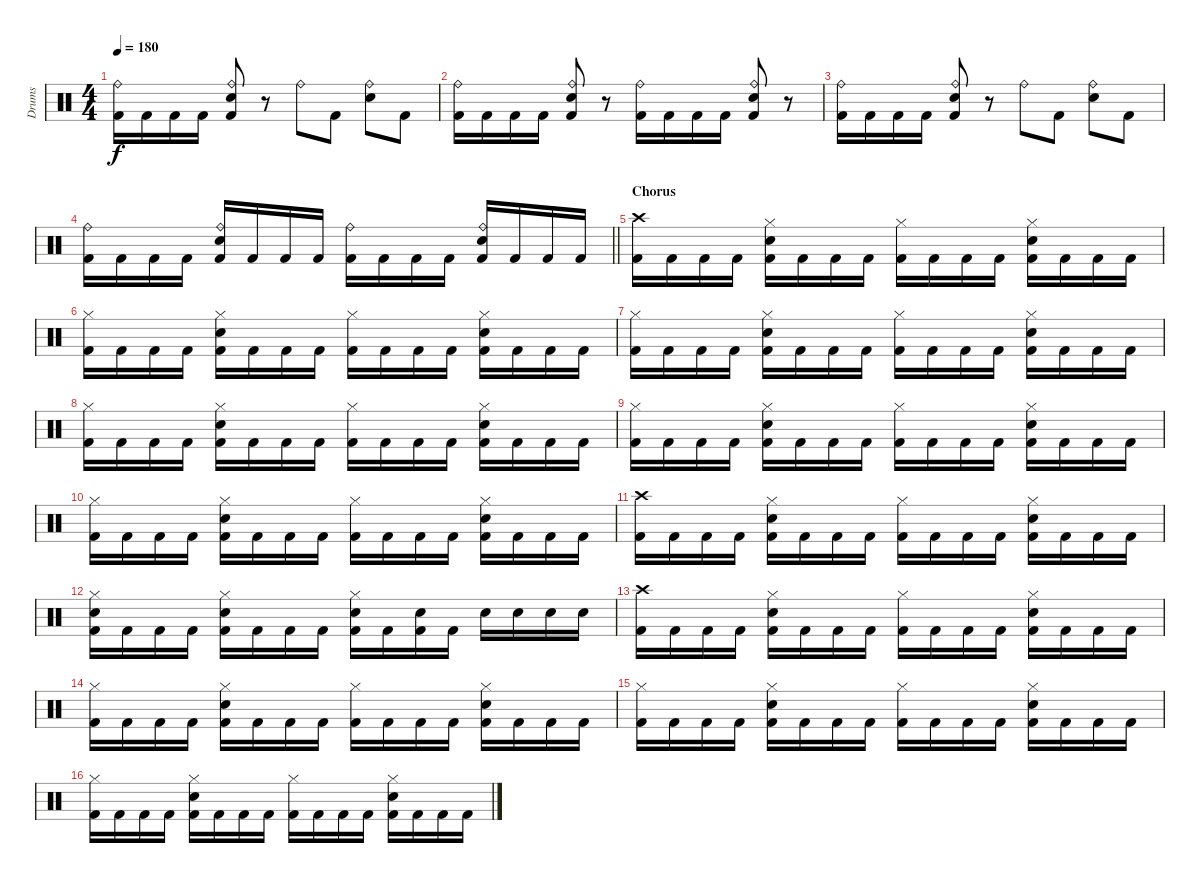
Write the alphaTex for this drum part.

\track ("Drums " "Drums ") {instrument percussion}
\staff {score}
\articulation defaults
\ts (4 4)
\tempo 180
\clef neutral
\ks c
("Kick (hit) 2" "Ride (bell)").16{dy f} "Kick (hit) 2".16 "Kick (hit) 2".16 "Kick (hit) 2".16 ("Kick (hit) 2" "Ride (bell)" "Electric Snare (hit)").8 r.8 "Ride (bell)".8 "Kick (hit) 2".8 ("Ride (bell)" "Electric Snare (hit)").8 "Kick (hit) 2".8 |
("Kick (hit) 2" "Ride (bell)").16 "Kick (hit) 2".16 "Kick (hit) 2".16 "Kick (hit) 2".16 ("Kick (hit) 2" "Ride (bell)" "Electric Snare (hit)").8 r.8 ("Kick (hit) 2" "Ride (bell)").16 "Kick (hit) 2".16 "Kick (hit) 2".16 "Kick (hit) 2".16 ("Kick (hit) 2" "Ride (bell)" "Electric Snare (hit)").8 r.8 |
("Kick (hit) 2" "Ride (bell)").16 "Kick (hit) 2".16 "Kick (hit) 2".16 "Kick (hit) 2".16 ("Kick (hit) 2" "Ride (bell)" "Electric Snare (hit)").8 r.8 "Ride (bell)".8 "Kick (hit) 2".8 ("Ride (bell)" "Electric Snare (hit)").8 "Kick (hit) 2".8 |
\barLineRight lightlight
("Kick (hit) 2" "Ride (bell)").16 "Kick (hit) 2".16 "Kick (hit) 2".16 "Kick (hit) 2".16 ("Kick (hit) 2" "Ride (bell)" "Electric Snare (hit)").16 "Kick (hit) 2".16 "Kick (hit) 2".16 "Kick (hit) 2".16 ("Kick (hit) 2" "Ride (bell)").16 "Kick (hit) 2".16 "Kick (hit) 2".16 "Kick (hit) 2".16 ("Kick (hit) 2" "Ride (bell)" "Electric Snare (hit)").16 "Kick (hit) 2".16 "Kick (hit) 2".16 "Kick (hit) 2".16 |
\section ("" "Chorus")
("Kick (hit) 2" "Crash high (hit)").16 "Kick (hit) 2".16 "Kick (hit) 2".16 "Kick (hit) 2".16 ("Kick (hit) 2" "Hi-Hat (closed)" "Electric Snare (hit)").16 "Kick (hit) 2".16 "Kick (hit) 2".16 "Kick (hit) 2".16 ("Kick (hit) 2" "Hi-Hat (closed)").16 "Kick (hit) 2".16 "Kick (hit) 2".16 "Kick (hit) 2".16 ("Kick (hit) 2" "Hi-Hat (closed)" "Electric Snare (hit)").16 "Kick (hit) 2".16 "Kick (hit) 2".16 "Kick (hit) 2".16 |
("Kick (hit) 2" "Hi-Hat (closed)").16 "Kick (hit) 2".16 "Kick (hit) 2".16 "Kick (hit) 2".16 ("Kick (hit) 2" "Hi-Hat (closed)" "Electric Snare (hit)").16 "Kick (hit) 2".16 "Kick (hit) 2".16 "Kick (hit) 2".16 ("Kick (hit) 2" "Hi-Hat (closed)").16 "Kick (hit) 2".16 "Kick (hit) 2".16 "Kick (hit) 2".16 ("Kick (hit) 2" "Hi-Hat (closed)" "Electric Snare (hit)").16 "Kick (hit) 2".16 "Kick (hit) 2".16 "Kick (hit) 2".16 |
("Kick (hit) 2" "Hi-Hat (closed)").16 "Kick (hit) 2".16 "Kick (hit) 2".16 "Kick (hit) 2".16 ("Kick (hit) 2" "Hi-Hat (closed)" "Electric Snare (hit)").16 "Kick (hit) 2".16 "Kick (hit) 2".16 "Kick (hit) 2".16 ("Kick (hit) 2" "Hi-Hat (closed)").16 "Kick (hit) 2".16 "Kick (hit) 2".16 "Kick (hit) 2".16 ("Kick (hit) 2" "Hi-Hat (closed)" "Electric Snare (hit)").16 "Kick (hit) 2".16 "Kick (hit) 2".16 "Kick (hit) 2".16 |
("Kick (hit) 2" "Hi-Hat (closed)").16 "Kick (hit) 2".16 "Kick (hit) 2".16 "Kick (hit) 2".16 ("Kick (hit) 2" "Hi-Hat (closed)" "Electric Snare (hit)").16 "Kick (hit) 2".16 "Kick (hit) 2".16 "Kick (hit) 2".16 ("Kick (hit) 2" "Hi-Hat (closed)").16 "Kick (hit) 2".16 "Kick (hit) 2".16 "Kick (hit) 2".16 ("Kick (hit) 2" "Hi-Hat (closed)" "Electric Snare (hit)").16 "Kick (hit) 2".16 "Kick (hit) 2".16 "Kick (hit) 2".16 |
("Kick (hit) 2" "Hi-Hat (closed)").16 "Kick (hit) 2".16 "Kick (hit) 2".16 "Kick (hit) 2".16 ("Kick (hit) 2" "Hi-Hat (closed)" "Electric Snare (hit)").16 "Kick (hit) 2".16 "Kick (hit) 2".16 "Kick (hit) 2".16 ("Kick (hit) 2" "Hi-Hat (closed)").16 "Kick (hit) 2".16 "Kick (hit) 2".16 "Kick (hit) 2".16 ("Kick (hit) 2" "Hi-Hat (closed)" "Electric Snare (hit)").16 "Kick (hit) 2".16 "Kick (hit) 2".16 "Kick (hit) 2".16 |
("Kick (hit) 2" "Hi-Hat (closed)").16 "Kick (hit) 2".16 "Kick (hit) 2".16 "Kick (hit) 2".16 ("Kick (hit) 2" "Hi-Hat (closed)" "Electric Snare (hit)").16 "Kick (hit) 2".16 "Kick (hit) 2".16 "Kick (hit) 2".16 ("Kick (hit) 2" "Hi-Hat (closed)").16 "Kick (hit) 2".16 "Kick (hit) 2".16 "Kick (hit) 2".16 ("Kick (hit) 2" "Hi-Hat (closed)" "Electric Snare (hit)").16 "Kick (hit) 2".16 "Kick (hit) 2".16 "Kick (hit) 2".16 |
("Kick (hit) 2" "Crash high (hit)").16 "Kick (hit) 2".16 "Kick (hit) 2".16 "Kick (hit) 2".16 ("Kick (hit) 2" "Hi-Hat (closed)" "Electric Snare (hit)").16 "Kick (hit) 2".16 "Kick (hit) 2".16 "Kick (hit) 2".16 ("Kick (hit) 2" "Hi-Hat (closed)").16 "Kick (hit) 2".16 "Kick (hit) 2".16 "Kick (hit) 2".16 ("Kick (hit) 2" "Hi-Hat (closed)" "Electric Snare (hit)").16 "Kick (hit) 2".16 "Kick (hit) 2".16 "Kick (hit) 2".16 |
("Kick (hit) 2" "Hi-Hat (closed)" "Electric Snare (hit)").16 "Kick (hit) 2".16 "Kick (hit) 2".16 "Kick (hit) 2".16 ("Kick (hit) 2" "Hi-Hat (closed)" "Electric Snare (hit)").16 "Kick (hit) 2".16 "Kick (hit) 2".16 "Kick (hit) 2".16 ("Kick (hit) 2" "Hi-Hat (closed)" "Electric Snare (hit)").16 "Kick (hit) 2".16 ("Kick (hit) 2" "Electric Snare (hit)").16 "Kick (hit) 2".16 "Electric Snare (hit)".16 "Electric Snare (hit)".16 "Electric Snare (hit)".16 "Electric Snare (hit)".16 |
("Kick (hit) 2" "Crash high (hit)").16 "Kick (hit) 2".16 "Kick (hit) 2".16 "Kick (hit) 2".16 ("Kick (hit) 2" "Hi-Hat (closed)" "Electric Snare (hit)").16 "Kick (hit) 2".16 "Kick (hit) 2".16 "Kick (hit) 2".16 ("Kick (hit) 2" "Hi-Hat (closed)").16 "Kick (hit) 2".16 "Kick (hit) 2".16 "Kick (hit) 2".16 ("Kick (hit) 2" "Hi-Hat (closed)" "Electric Snare (hit)").16 "Kick (hit) 2".16 "Kick (hit) 2".16 "Kick (hit) 2".16 |
("Kick (hit) 2" "Hi-Hat (closed)").16 "Kick (hit) 2".16 "Kick (hit) 2".16 "Kick (hit) 2".16 ("Kick (hit) 2" "Hi-Hat (closed)" "Electric Snare (hit)").16 "Kick (hit) 2".16 "Kick (hit) 2".16 "Kick (hit) 2".16 ("Kick (hit) 2" "Hi-Hat (closed)").16 "Kick (hit) 2".16 "Kick (hit) 2".16 "Kick (hit) 2".16 ("Kick (hit) 2" "Hi-Hat (closed)" "Electric Snare (hit)").16 "Kick (hit) 2".16 "Kick (hit) 2".16 "Kick (hit) 2".16 |
("Kick (hit) 2" "Hi-Hat (closed)").16 "Kick (hit) 2".16 "Kick (hit) 2".16 "Kick (hit) 2".16 ("Kick (hit) 2" "Hi-Hat (closed)" "Electric Snare (hit)").16 "Kick (hit) 2".16 "Kick (hit) 2".16 "Kick (hit) 2".16 ("Kick (hit) 2" "Hi-Hat (closed)").16 "Kick (hit) 2".16 "Kick (hit) 2".16 "Kick (hit) 2".16 ("Kick (hit) 2" "Hi-Hat (closed)" "Electric Snare (hit)").16 "Kick (hit) 2".16 "Kick (hit) 2".16 "Kick (hit) 2".16 |
("Kick (hit) 2" "Hi-Hat (closed)").16 "Kick (hit) 2".16 "Kick (hit) 2".16 "Kick (hit) 2".16 ("Kick (hit) 2" "Hi-Hat (closed)" "Electric Snare (hit)").16 "Kick (hit) 2".16 "Kick (hit) 2".16 "Kick (hit) 2".16 ("Kick (hit) 2" "Hi-Hat (closed)").16 "Kick (hit) 2".16 "Kick (hit) 2".16 "Kick (hit) 2".16 ("Kick (hit) 2" "Hi-Hat (closed)" "Electric Snare (hit)").16 "Kick (hit) 2".16 "Kick (hit) 2".16 "Kick (hit) 2".16
